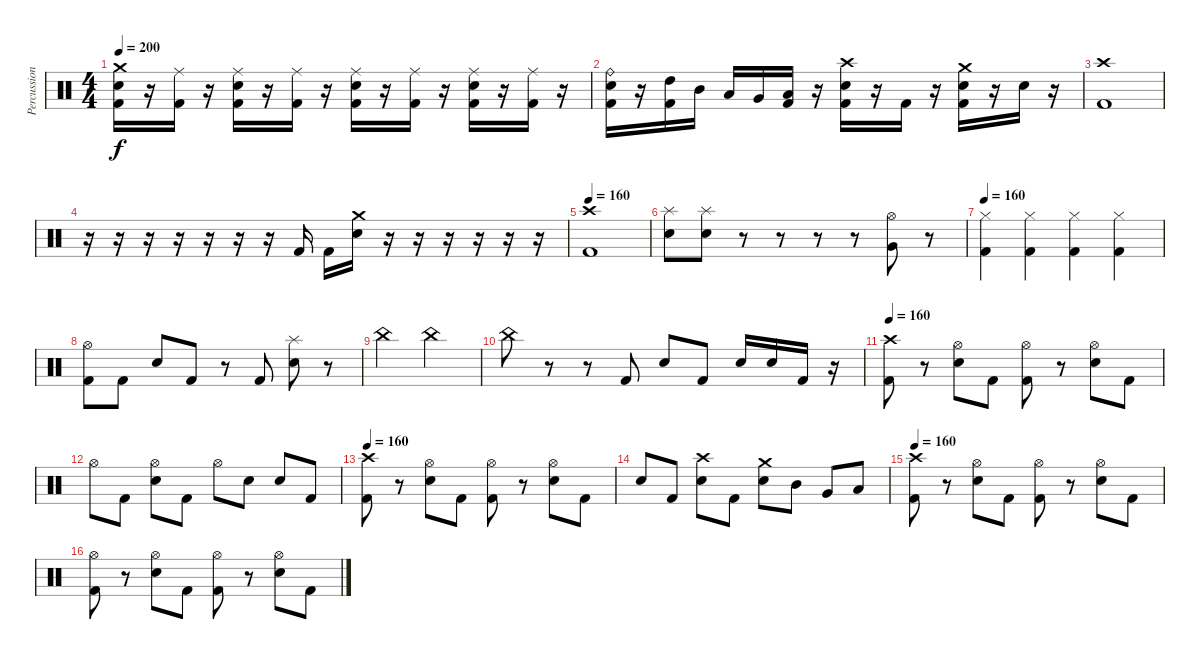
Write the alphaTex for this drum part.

\track ("Percussion" "Percussion") {instrument percussion}
\staff {score}
\articulation defaults
\ts (4 4)
\tempo 200
\clef neutral
\ks c
("Crash medium (hit)" "Snare (hit) 2" "Kick (hit) 2").16{dy f} r.16 ("Ride (middle)" "Kick (hit) 2").16 r.16 ("Ride (middle)" "Snare (hit) 2" "Kick (hit) 2").16 r.16 ("Ride (middle)" "Kick (hit) 2").16 r.16 ("Ride (middle)" "Snare (hit) 2" "Kick (hit) 2").16 r.16 ("Ride (middle)" "Kick (hit) 2").16 r.16 ("Ride (middle)" "Snare (hit) 2" "Kick (hit) 2").16 r.16 ("Ride (middle)" "Kick (hit) 2").16 r.16 |
("Ride (bell)" "Snare (hit) 2" "Kick (hit) 2").16 r.16 ("High Tom (hit)" "Kick (hit) 2").16 "Mid Tom (hit)".16 "Low Tom (hit)".16 "Very Low Tom (hit)".16 ("Low Floor Tom (hit)" "Kick (hit) 2").16 r.16 ("Crash high (hit)" "Snare (hit) 2" "Kick (hit) 2").16 r.16 "Kick (hit) 2".16 r.16 ("Crash medium (hit)" "Snare (hit) 2" "Kick (hit) 2").16 r.16 "Snare (hit) 2".16 r.16 |
("Crash high (hit)" "Kick (hit) 2").1 |
r.16 r.16 r.16 r.16 r.16 r.16 r.16 "Kick (hit) 2".16 "Kick (hit) 2".16 ("Crash medium (hit)" "Snare (hit) 2").16 r.16 r.16 r.16 r.16 r.16 r.16 |
\tempo 160
("Crash high (hit)" "Kick (hit) 2").1 |
("Splash (hit)" "Snare (hit) 2").8 ("Splash (hit)" "Snare (hit) 2").8 r.8 r.8 r.8 r.8 ("Hi-Hat (open)" "Very Low Tom (hit)").8 r.8 |
\tempo 160
("Hi-Hat (closed)" "Kick (hit) 2").4 ("Hi-Hat (closed)" "Kick (hit) 2").4 ("Hi-Hat (closed)" "Kick (hit) 2").4 ("Hi-Hat (closed)" "Kick (hit) 2").4 |
("Hi-Hat (open)" "Kick (hit) 2").8 "Kick (hit) 2".8 "Snare (hit) 2".8 "Kick (hit) 2".8 r.8 "Kick (hit) 2".8 ("Splash (hit)" "Snare (hit) 2").8 r.8 |
"China (hit)".2 "China (hit)".2 |
"China (hit)".8 r.8 r.8 "Kick (hit) 2".8 "Snare (hit) 2".8 "Kick (hit) 2".8 "Snare (hit) 2".16 "Snare (hit) 2".16 "Kick (hit) 2".16 r.16 |
\tempo 160
("Crash high (hit)" "Kick (hit) 2").8 r.8 ("Hi-Hat (open)" "Snare (hit) 2").8 "Kick (hit) 2".8 ("Hi-Hat (open)" "Kick (hit) 2").8 r.8 ("Hi-Hat (open)" "Snare (hit) 2").8 "Kick (hit) 2".8 |
"Hi-Hat (open)".8 "Kick (hit) 2".8 ("Hi-Hat (open)" "Snare (hit) 2").8 "Kick (hit) 2".8 "Hi-Hat (open)".8 "Snare (hit) 2".8 "Snare (hit) 2".8 "Kick (hit) 2".8 |
\tempo 160
("Crash high (hit)" "Kick (hit) 2").8 r.8 ("Hi-Hat (open)" "Snare (hit) 2").8 "Kick (hit) 2".8 ("Hi-Hat (open)" "Kick (hit) 2").8 r.8 ("Hi-Hat (open)" "Snare (hit) 2").8 "Kick (hit) 2".8 |
"Snare (hit) 2".8 "Kick (hit) 2".8 ("Crash high (hit)" "Snare (hit) 2").8 "Kick (hit) 2".8 ("Crash medium (hit)" "Snare (hit) 2").8 "Mid Tom (hit)".8 "Very Low Tom (hit)".8 "Low Floor Tom (hit)".8 |
\tempo 160
("Crash high (hit)" "Kick (hit) 2").8 r.8 ("Hi-Hat (open)" "Snare (hit) 2").8 "Kick (hit) 2".8 ("Hi-Hat (open)" "Kick (hit) 2").8 r.8 ("Hi-Hat (open)" "Snare (hit) 2").8 "Kick (hit) 2".8 |
("Hi-Hat (open)" "Kick (hit) 2").8 r.8 ("Hi-Hat (open)" "Snare (hit) 2").8 "Kick (hit) 2".8 ("Hi-Hat (open)" "Kick (hit) 2").8 r.8 ("Hi-Hat (open)" "Snare (hit) 2").8 "Kick (hit) 2".8
